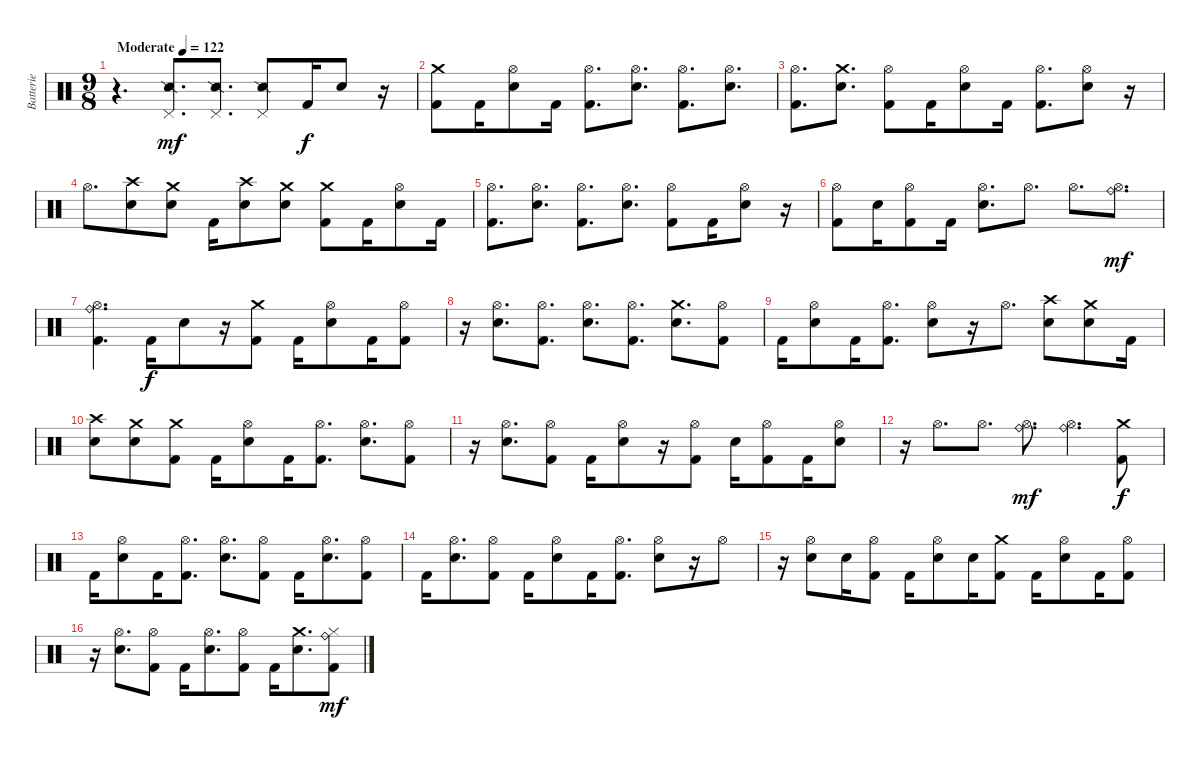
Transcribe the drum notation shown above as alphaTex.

\track ("Batterie" "Batterie") {instrument percussion}
\staff {score}
\articulation defaults
\ts (9 8)
\tempo (122 "Moderate")
\clef neutral
\ks c
r.4{d dy mf} ("Pedal Hi-Hat (hit)" "Snare (side stick) 2").8{d} ("Pedal Hi-Hat (hit)" "Snare (side stick) 2").8{d} ("Pedal Hi-Hat (hit)" "Snare (side stick) 2").8 "Kick (hit) 2".16{dy f} "Electric Snare (hit)".8 r.16 |
("Crash medium (hit)" "Kick (hit) 2").8 "Kick (hit) 2".16 ("Hi-Hat (open)" "Electric Snare (hit)").8 "Kick (hit) 2".16 ("Hi-Hat (open)" "Kick (hit) 2").8{d} ("Hi-Hat (open)" "Electric Snare (hit)").8{d} ("Hi-Hat (open)" "Kick (hit) 2").8{d} ("Hi-Hat (open)" "Electric Snare (hit)").8{d} |
("Hi-Hat (open)" "Kick (hit) 2").8{d} ("Crash medium (hit)" "Electric Snare (hit)").8{d} ("Hi-Hat (open)" "Kick (hit) 2").8 "Kick (hit) 2".16 ("Hi-Hat (open)" "Electric Snare (hit)").8 "Kick (hit) 2".16 ("Hi-Hat (open)" "Kick (hit) 2").8{d} ("Hi-Hat (open)" "Electric Snare (hit)").8 r.16 |
"Hi-Hat (open)".8{d} ("Crash high (hit)" "Electric Snare (hit)").8 ("Crash medium (hit)" "Electric Snare (hit)").8 "Kick (hit) 2".16 ("Crash high (hit)" "Electric Snare (hit)").8 ("Crash medium (hit)" "Electric Snare (hit)").8 ("Crash medium (hit)" "Kick (hit) 2").8 "Kick (hit) 2".16 ("Hi-Hat (open)" "Electric Snare (hit)").8 "Kick (hit) 2".16 |
("Hi-Hat (open)" "Kick (hit) 2").8{d} ("Hi-Hat (open)" "Electric Snare (hit)").8{d} ("Hi-Hat (open)" "Kick (hit) 2").8{d} ("Hi-Hat (open)" "Electric Snare (hit)").8{d} ("Hi-Hat (open)" "Kick (hit) 2").8 "Kick (hit) 2".16 ("Hi-Hat (open)" "Electric Snare (hit)").8 r.16 |
("Hi-Hat (open)" "Kick (hit) 2").8 "Electric Snare (hit)".16 ("Hi-Hat (open)" "Kick (hit) 2").8 "Kick (hit) 2".16 ("Hi-Hat (open)" "Electric Snare (hit)").8{d} "Hi-Hat (open)".8{d} "Hi-Hat (open)".8{d} ("Hi-Hat (open)" "Ride (bell)").8{d dy mf} |
("Hi-Hat (open)" "Ride (bell)" "Kick (hit) 2").4{d} "Kick (hit) 2".16{dy f} "Electric Snare (hit)".8 r.16 ("Crash medium (hit)" "Kick (hit) 2").8 "Kick (hit) 2".16 ("Hi-Hat (open)" "Electric Snare (hit)").8 "Kick (hit) 2".16 ("Hi-Hat (open)" "Kick (hit) 2").8 |
r.16 ("Hi-Hat (open)" "Electric Snare (hit)").8{d} ("Hi-Hat (open)" "Kick (hit) 2").8{d} ("Hi-Hat (open)" "Electric Snare (hit)").8{d} ("Hi-Hat (open)" "Kick (hit) 2").8{d} ("Crash medium (hit)" "Electric Snare (hit)").8{d} ("Hi-Hat (open)" "Kick (hit) 2").8 |
"Kick (hit) 2".16 ("Hi-Hat (open)" "Electric Snare (hit)").8 "Kick (hit) 2".16 ("Hi-Hat (open)" "Kick (hit) 2").8{d} ("Hi-Hat (open)" "Electric Snare (hit)").8 r.16 "Hi-Hat (open)".8{d} ("Crash high (hit)" "Electric Snare (hit)").8 ("Crash medium (hit)" "Electric Snare (hit)").8 "Kick (hit) 2".16 |
("Crash high (hit)" "Electric Snare (hit)").8 ("Crash medium (hit)" "Electric Snare (hit)").8 ("Crash medium (hit)" "Kick (hit) 2").8 "Kick (hit) 2".16 ("Hi-Hat (open)" "Electric Snare (hit)").8 "Kick (hit) 2".16 ("Hi-Hat (open)" "Kick (hit) 2").8{d} ("Hi-Hat (open)" "Electric Snare (hit)").8{d} ("Hi-Hat (open)" "Kick (hit) 2").8 |
r.16 ("Hi-Hat (open)" "Electric Snare (hit)").8{d} ("Hi-Hat (open)" "Kick (hit) 2").8 "Kick (hit) 2".16 ("Hi-Hat (open)" "Electric Snare (hit)").8 r.16 ("Hi-Hat (open)" "Kick (hit) 2").8 "Electric Snare (hit)".16 ("Hi-Hat (open)" "Kick (hit) 2").8 "Kick (hit) 2".16 ("Hi-Hat (open)" "Electric Snare (hit)").8 |
r.16 "Hi-Hat (open)".8{d} "Hi-Hat (open)".8{d} ("Hi-Hat (open)" "Ride (bell)").8{d dy mf} ("Hi-Hat (open)" "Ride (bell)").4{d} ("Crash medium (hit)" "Kick (hit) 2").8{dy f} |
"Kick (hit) 2".16 ("Hi-Hat (open)" "Electric Snare (hit)").8 "Kick (hit) 2".16 ("Hi-Hat (open)" "Kick (hit) 2").8{d} ("Hi-Hat (open)" "Electric Snare (hit)").8{d} ("Hi-Hat (open)" "Kick (hit) 2").8 "Kick (hit) 2".16 ("Hi-Hat (open)" "Electric Snare (hit)").8{d} ("Hi-Hat (open)" "Kick (hit) 2").8 |
"Kick (hit) 2".16 ("Hi-Hat (open)" "Electric Snare (hit)").8{d} ("Hi-Hat (open)" "Kick (hit) 2").8 "Kick (hit) 2".16 ("Hi-Hat (open)" "Electric Snare (hit)").8 "Kick (hit) 2".16 ("Hi-Hat (open)" "Kick (hit) 2").8{d} ("Hi-Hat (open)" "Electric Snare (hit)").8 r.16 "Hi-Hat (open)".8 |
r.16 ("Hi-Hat (open)" "Electric Snare (hit)").8 "Electric Snare (hit)".16 ("Hi-Hat (open)" "Kick (hit) 2").8 "Kick (hit) 2".16 ("Hi-Hat (open)" "Electric Snare (hit)").8 "Electric Snare (hit)".16 ("Crash medium (hit)" "Kick (hit) 2").8 "Kick (hit) 2".16 ("Hi-Hat (open)" "Electric Snare (hit)").8 "Kick (hit) 2".16 ("Hi-Hat (open)" "Kick (hit) 2").8 |
r.16 ("Hi-Hat (open)" "Electric Snare (hit)").8{d} ("Hi-Hat (open)" "Kick (hit) 2").8 "Kick (hit) 2".16 ("Hi-Hat (open)" "Electric Snare (hit)").8{d} ("Hi-Hat (open)" "Kick (hit) 2").8 "Kick (hit) 2".16 ("Crash medium (hit)" "Electric Snare (hit)").8{d} ("Hi-Hat (closed)" "Ride (bell)" "Kick (hit) 2").8{dy mf}
